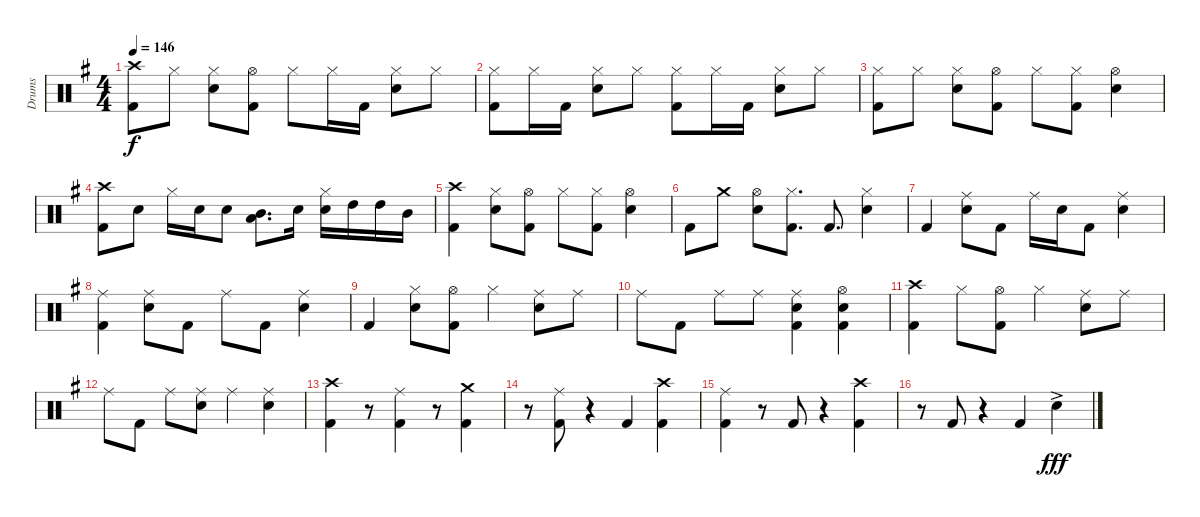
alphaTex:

\track ("Drums" "Drums") {instrument percussion}
\staff {score}
\articulation defaults
\ts (4 4)
\tempo 146
\clef neutral
\ks g
("Kick (hit) 2" "Crash high (hit)").8{dy f} "Hi-Hat (closed)".8 ("Snare (hit) 2" "Hi-Hat (closed)").8 ("Kick (hit) 2" "Hi-Hat (open)").8 "Hi-Hat (closed)".8 "Hi-Hat (closed)".16 "Kick (hit) 2".16 ("Snare (hit) 2" "Hi-Hat (closed)").8 "Hi-Hat (closed)".8 |
("Kick (hit) 2" "Hi-Hat (closed)").8 "Hi-Hat (closed)".16 "Kick (hit) 2".16 ("Snare (hit) 2" "Hi-Hat (closed)").8 "Hi-Hat (closed)".8 ("Kick (hit) 2" "Hi-Hat (closed)").8 "Hi-Hat (closed)".16 "Kick (hit) 2".16 ("Snare (hit) 2" "Hi-Hat (closed)").8 "Hi-Hat (closed)".8 |
("Kick (hit) 2" "Hi-Hat (closed)").8 "Hi-Hat (closed)".8 ("Snare (hit) 2" "Hi-Hat (closed)").8 ("Kick (hit) 2" "Hi-Hat (open)").8 "Hi-Hat (closed)".8 ("Kick (hit) 2" "Hi-Hat (closed)").8 ("Snare (hit) 2" "Hi-Hat (open)").4 |
("Kick (hit) 2" "Crash high (hit)").8 "Snare (hit) 2".8 "Hi-Hat (closed)".16 "Snare (hit) 2".16 "Snare (hit) 2".8 ("Mid Tom (hit)" "Low Tom (hit)").8{d} "Snare (hit) 2".16 ("Snare (hit) 2" "Hi-Hat (closed)").16 "High Tom (hit)".16 "High Tom (hit)".16 "Mid Tom (hit)".16 |
("Kick (hit) 2" "Crash high (hit)").4 ("Snare (hit) 2" "Hi-Hat (closed)").8 ("Kick (hit) 2" "Hi-Hat (open)").8 "Hi-Hat (closed)".8 ("Kick (hit) 2" "Hi-Hat (closed)").8 ("Snare (hit) 2" "Hi-Hat (open)").4 |
"Kick (hit) 2".8 "Crash medium (hit)".8 ("Snare (hit) 2" "Hi-Hat (open)").8 ("Kick (hit) 2" "Hi-Hat (closed)").8{d} "Kick (hit) 2".8{d} ("Snare (hit) 2" "Hi-Hat (closed)").4 |
"Kick (hit) 2".4 ("Snare (hit) 2" "Ride (middle)").8 "Kick (hit) 2".8 "Ride (middle)".16 "Snare (hit) 2".16 "Kick (hit) 2".8 ("Snare (hit) 2" "Ride (middle)").4 |
("Kick (hit) 2" "Ride (middle)").4 ("Snare (hit) 2" "Ride (middle)").8 "Kick (hit) 2".8 "Ride (middle)".8 "Kick (hit) 2".8 ("Snare (hit) 2" "Ride (middle)").4 |
"Kick (hit) 2".4 ("Snare (hit) 2" "Hi-Hat (closed)").8 ("Kick (hit) 2" "Hi-Hat (open)").8 "Hi-Hat (closed)".4 ("Snare (hit) 2" "Ride (middle)").8 "Ride (middle)".8 |
"Ride (middle)".8 "Kick (hit) 2".8 "Ride (middle)".8 "Ride (middle)".8 ("Kick (hit) 2" "Snare (hit) 2" "Ride (middle)").4 ("Kick (hit) 2" "Snare (hit) 2" "Hi-Hat (open)").4 |
("Kick (hit) 2" "Crash high (hit)").4 "Hi-Hat (closed)".8 ("Kick (hit) 2" "Hi-Hat (open)").8 "Hi-Hat (closed)".4 ("Snare (hit) 2" "Ride (middle)").8 "Ride (middle)".8 |
"Ride (middle)".8 "Kick (hit) 2".8 "Ride (middle)".8 ("Snare (hit) 2" "Ride (middle)").8 "Ride (middle)".4 ("Snare (hit) 2" "Ride (middle)").4 |
("Kick (hit) 2" "Crash high (hit)").4 r.8 ("Kick (hit) 2" "Ride (middle)").4 r.8 ("Kick (hit) 2" "Crash medium (hit)").4 |
r.8 ("Kick (hit) 2" "Ride (middle)").8 r.4 "Kick (hit) 2".4 ("Kick (hit) 2" "Crash high (hit)").4 |
("Kick (hit) 2" "Ride (middle)").4 r.8 "Kick (hit) 2".8 r.4 ("Kick (hit) 2" "Crash high (hit)").4 |
r.8 "Kick (hit) 2".8 r.4 "Kick (hit) 2".4 "Snare (hit) 2"{ac}.4{dy fff}
